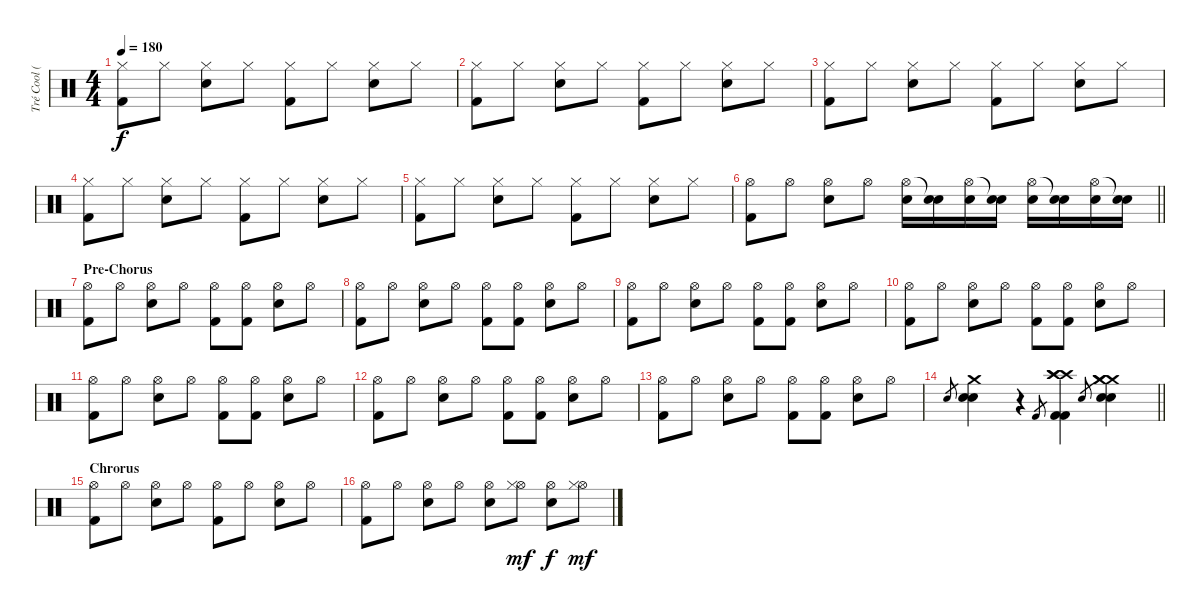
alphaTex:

\track ("Tré Cool (Drums)" "Tré Cool (") {instrument percussion}
\staff {score}
\articulation defaults
\ts (4 4)
\tempo 180
\clef neutral
\ks c
("Kick (hit) 2" "Hi-Hat (closed)").8{dy f} "Hi-Hat (closed)".8 ("Snare (hit) 2" "Hi-Hat (closed)").8 "Hi-Hat (closed)".8 ("Kick (hit) 2" "Hi-Hat (closed)").8 "Hi-Hat (closed)".8 ("Snare (hit) 2" "Hi-Hat (closed)").8 "Hi-Hat (closed)".8 |
("Kick (hit) 2" "Hi-Hat (closed)").8 "Hi-Hat (closed)".8 ("Snare (hit) 2" "Hi-Hat (closed)").8 "Hi-Hat (closed)".8 ("Kick (hit) 2" "Hi-Hat (closed)").8 "Hi-Hat (closed)".8 ("Snare (hit) 2" "Hi-Hat (closed)").8 "Hi-Hat (closed)".8 |
("Kick (hit) 2" "Hi-Hat (closed)").8 "Hi-Hat (closed)".8 ("Snare (hit) 2" "Hi-Hat (closed)").8 "Hi-Hat (closed)".8 ("Kick (hit) 2" "Hi-Hat (closed)").8 "Hi-Hat (closed)".8 ("Snare (hit) 2" "Hi-Hat (closed)").8 "Hi-Hat (closed)".8 |
("Kick (hit) 2" "Hi-Hat (closed)").8 "Hi-Hat (closed)".8 ("Snare (hit) 2" "Hi-Hat (closed)").8 "Hi-Hat (closed)".8 ("Kick (hit) 2" "Hi-Hat (closed)").8 "Hi-Hat (closed)".8 ("Snare (hit) 2" "Hi-Hat (closed)").8 "Hi-Hat (closed)".8 |
("Kick (hit) 2" "Hi-Hat (closed)").8 "Hi-Hat (closed)".8 ("Snare (hit) 2" "Hi-Hat (closed)").8 "Hi-Hat (closed)".8 ("Kick (hit) 2" "Hi-Hat (closed)").8 "Hi-Hat (closed)".8 ("Snare (hit) 2" "Hi-Hat (closed)").8 "Hi-Hat (closed)".8 |
\barLineRight lightlight
("Kick (hit) 2" "Hi-Hat (open)").8 "Hi-Hat (open)".8 ("Snare (hit) 2" "Hi-Hat (open)").8 "Hi-Hat (open)".8 ("Electric Snare (hit)" "Hi-Hat (open)").16 ("Snare (hit) 2" "Snare (hit)"{t}).16 ("Snare (hit) 2" "Hi-Hat (open)").16 ("Snare (hit) 2" "Snare (hit)"{t}).16 ("Electric Snare (hit)" "Hi-Hat (open)").16 ("Snare (hit) 2" "Snare (hit)"{t}).16 ("Snare (hit) 2" "Hi-Hat (open)").16 ("Electric Snare (hit)" "Snare (hit)"{t}).16 |
\section ("" "Pre-Chorus")
("Kick (hit) 2" "Hi-Hat (open)").8 "Hi-Hat (open)".8 ("Snare (hit) 2" "Hi-Hat (open)").8 "Hi-Hat (open)".8 ("Kick (hit) 2" "Hi-Hat (open)").8 ("Kick (hit) 2" "Hi-Hat (open)").8 ("Snare (hit) 2" "Hi-Hat (open)").8 "Hi-Hat (open)".8 |
("Kick (hit) 2" "Hi-Hat (open)").8 "Hi-Hat (open)".8 ("Snare (hit) 2" "Hi-Hat (open)").8 "Hi-Hat (open)".8 ("Kick (hit) 2" "Hi-Hat (open)").8 ("Kick (hit) 2" "Hi-Hat (open)").8 ("Snare (hit) 2" "Hi-Hat (open)").8 "Hi-Hat (open)".8 |
("Kick (hit) 2" "Hi-Hat (open)").8 "Hi-Hat (open)".8 ("Snare (hit) 2" "Hi-Hat (open)").8 "Hi-Hat (open)".8 ("Kick (hit) 2" "Hi-Hat (open)").8 ("Kick (hit) 2" "Hi-Hat (open)").8 ("Snare (hit) 2" "Hi-Hat (open)").8 "Hi-Hat (open)".8 |
("Kick (hit) 2" "Hi-Hat (open)").8 "Hi-Hat (open)".8 ("Snare (hit) 2" "Hi-Hat (open)").8 "Hi-Hat (open)".8 ("Kick (hit) 2" "Hi-Hat (open)").8 ("Kick (hit) 2" "Hi-Hat (open)").8 ("Snare (hit) 2" "Hi-Hat (open)").8 "Hi-Hat (open)".8 |
("Kick (hit) 2" "Hi-Hat (open)").8 "Hi-Hat (open)".8 ("Snare (hit) 2" "Hi-Hat (open)").8 "Hi-Hat (open)".8 ("Kick (hit) 2" "Hi-Hat (open)").8 ("Kick (hit) 2" "Hi-Hat (open)").8 ("Snare (hit) 2" "Hi-Hat (open)").8 "Hi-Hat (open)".8 |
("Kick (hit) 2" "Hi-Hat (open)").8 "Hi-Hat (open)".8 ("Snare (hit) 2" "Hi-Hat (open)").8 "Hi-Hat (open)".8 ("Kick (hit) 2" "Hi-Hat (open)").8 ("Kick (hit) 2" "Hi-Hat (open)").8 ("Snare (hit) 2" "Hi-Hat (open)").8 "Hi-Hat (open)".8 |
("Kick (hit) 2" "Hi-Hat (open)").8 "Hi-Hat (open)".8 ("Snare (hit) 2" "Hi-Hat (open)").8 "Hi-Hat (open)".8 ("Kick (hit) 2" "Hi-Hat (open)").8 ("Kick (hit) 2" "Hi-Hat (open)").8 ("Snare (hit) 2" "Hi-Hat (open)").8 "Hi-Hat (open)".8 |
\barLineRight lightlight "Snare (hit) 2".8{gr}
("Snare (hit) 2" "Snare (hit) 2" "Crash medium (hit)").4 r.4 "Kick (hit) 2".8{gr} ("Kick (hit) 2" "Kick (hit) 2" "Crash high (hit)" "Crash high (hit)" "Crash high (hit)").4 "Snare (hit) 2".8{gr} ("Snare (hit) 2" "Snare (hit) 2" "Crash medium (hit)" "Crash medium (hit)" "Crash medium (hit)").4 |
\section ("" "Chrorus")
("Kick (hit) 2" "Hi-Hat (open)").8 "Hi-Hat (open)".8 ("Snare (hit) 2" "Hi-Hat (open)").8 "Hi-Hat (open)".8 ("Kick (hit) 2" "Hi-Hat (open)").8 "Hi-Hat (open)".8 ("Snare (hit) 2" "Hi-Hat (open)").8 "Hi-Hat (open)".8 |
("Kick (hit) 2" "Hi-Hat (open)").8 "Hi-Hat (open)".8 ("Snare (hit) 2" "Hi-Hat (open)").8 "Hi-Hat (open)".8 ("Snare (hit) 2" "Hi-Hat (open)").8 ("Hi-Hat (open)" "Hi-Hat (closed)").8{dy mf} ("Snare (hit) 2" "Hi-Hat (open)").8{dy f} ("Hi-Hat (open)" "Hi-Hat (closed)").8{dy mf}
